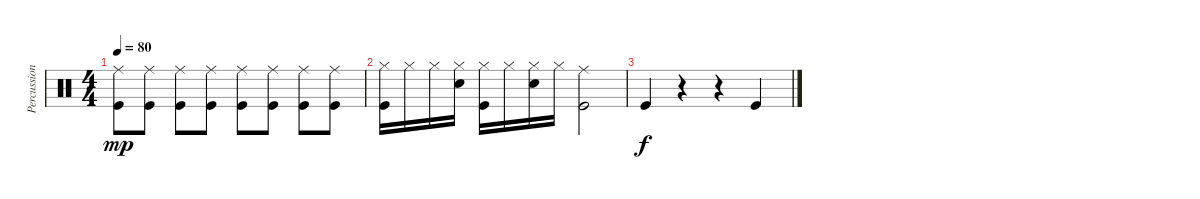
\track ("Percussion" "Percussion") {instrument percussion}
\staff {score}
\articulation defaults
\ts (4 4)
\tempo 80
\clef neutral
\ks c
("Ride (middle)" "Kick (hit)").8{dy mp} ("Ride (middle)" "Kick (hit)").8 ("Ride (middle)" "Kick (hit)").8 ("Ride (middle)" "Kick (hit)").8 ("Ride (middle)" "Kick (hit)").8 ("Ride (middle)" "Kick (hit)").8 ("Ride (middle)" "Kick (hit)").8 ("Ride (middle)" "Kick (hit)").8 |
("Kick (hit)" "Hi-Hat (closed)").16 "Hi-Hat (closed)".16 "Hi-Hat (closed)".16 ("Snare (hit) 2" "Hi-Hat (closed)").16 ("Kick (hit)" "Hi-Hat (closed)").16 "Hi-Hat (closed)".16 ("Snare (hit) 2" "Hi-Hat (closed)").16 "Hi-Hat (closed)".16 ("Ride (middle)" "Kick (hit)").2 |
"Kick (hit)".4{dy f} r.4 r.4 "Kick (hit)".4
